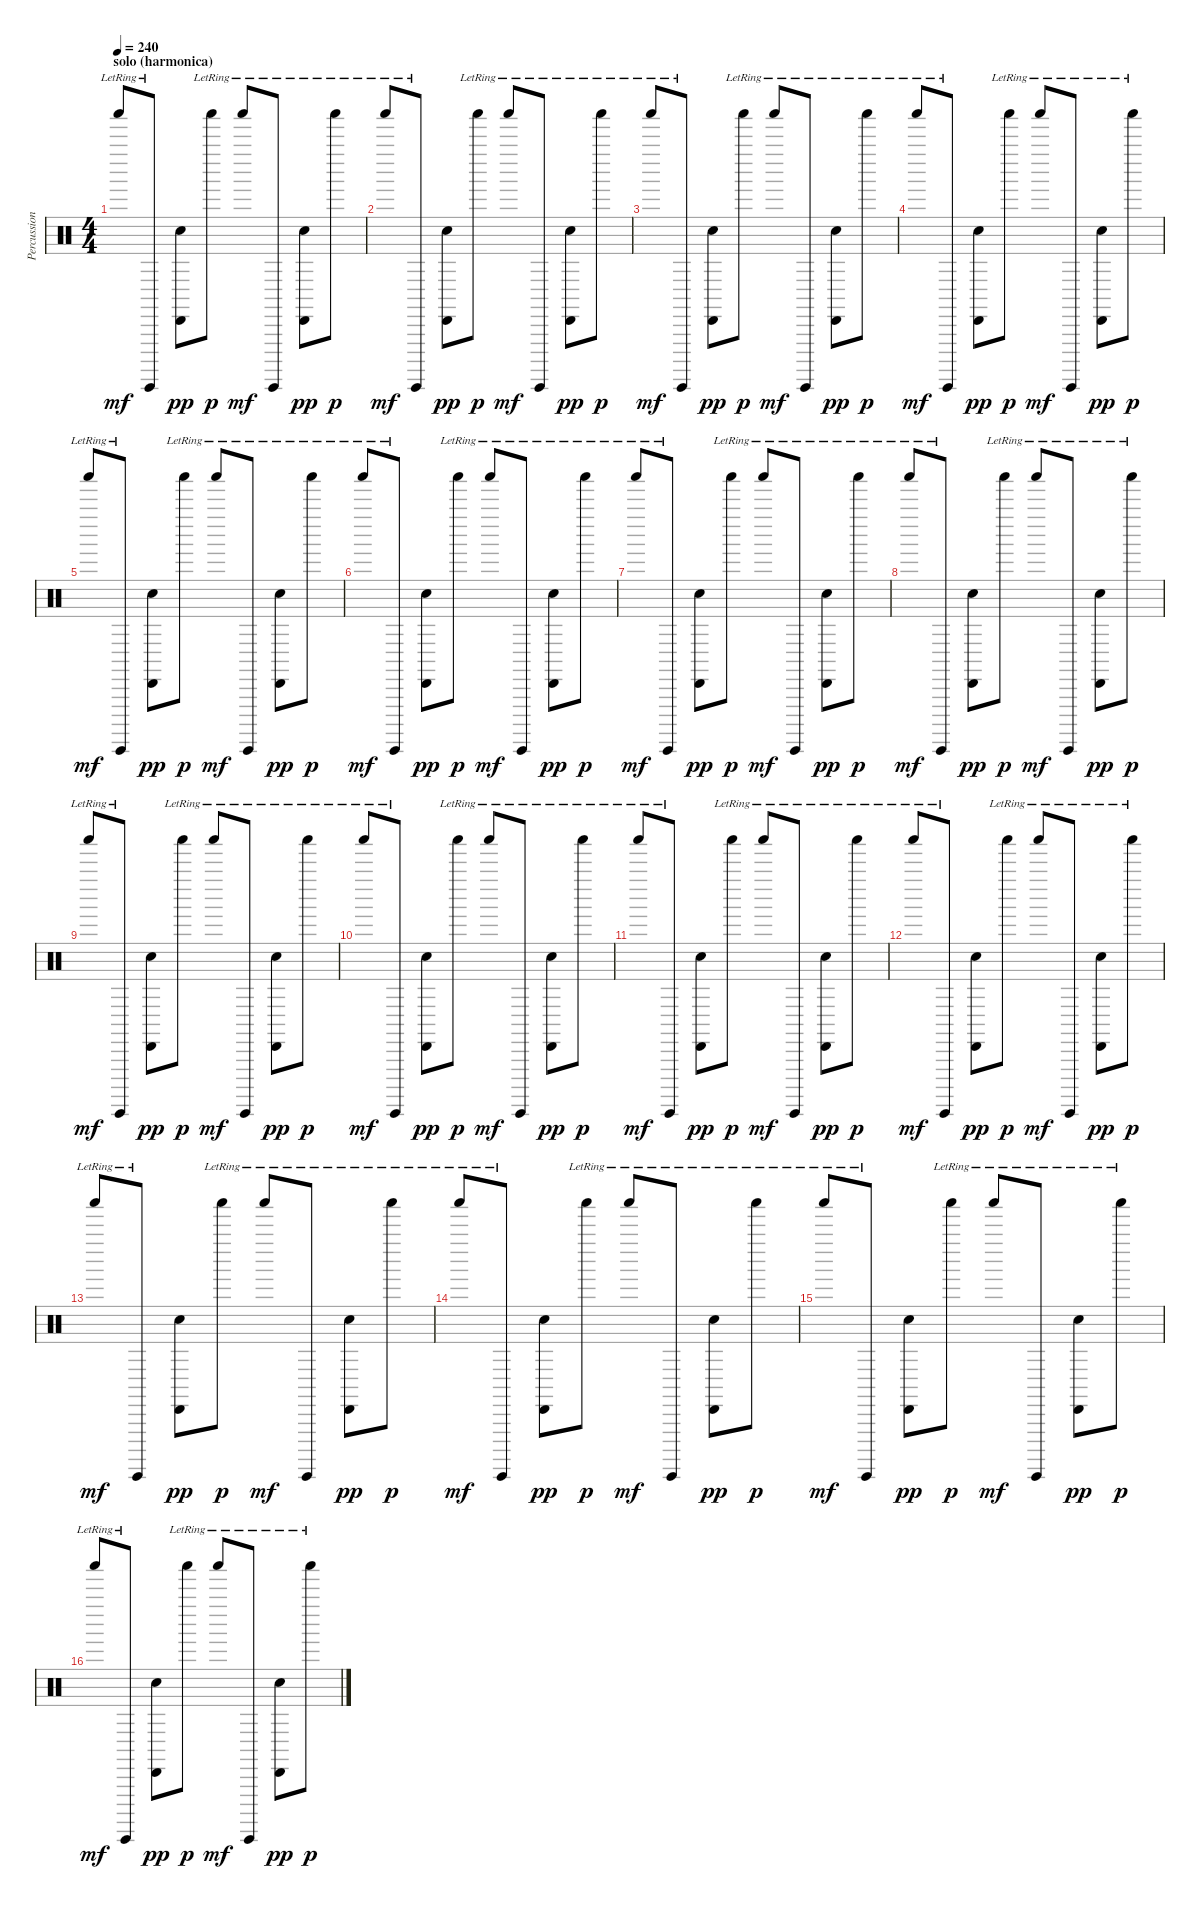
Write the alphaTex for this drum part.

\track ("Percussions" "Percussion") {instrument percussion}
\staff {score}
\articulation defaults
\ts (4 4)
\section ("" "solo (harmonica)")
\tempo 240
\clef neutral
\ks c "Shaker (hit)"{lr}.8{dy mf} "Guiro (hit)"{lr}.8
("Cabasa (hit)" "Snare (hit) 2").8{dy pp} "Shaker (hit)"{lr}.8{dy p} "Shaker (hit)"{lr}.8{dy mf} "Guiro (hit)"{lr}.8 ("Cabasa (hit)"{lr} "Snare (hit) 2").8{dy pp} "Shaker (hit)"{lr}.8{dy p} |
"Shaker (hit)"{lr}.8{dy mf} "Guiro (hit)"{lr}.8 ("Cabasa (hit)" "Snare (hit) 2").8{dy pp} "Shaker (hit)"{lr}.8{dy p} "Shaker (hit)"{lr}.8{dy mf} "Guiro (hit)"{lr}.8 ("Cabasa (hit)"{lr} "Snare (hit) 2").8{dy pp} "Shaker (hit)"{lr}.8{dy p} |
"Shaker (hit)"{lr}.8{dy mf} "Guiro (hit)"{lr}.8 ("Cabasa (hit)" "Snare (hit) 2").8{dy pp} "Shaker (hit)"{lr}.8{dy p} "Shaker (hit)"{lr}.8{dy mf} "Guiro (hit)"{lr}.8 ("Cabasa (hit)"{lr} "Snare (hit) 2").8{dy pp} "Shaker (hit)"{lr}.8{dy p} |
"Shaker (hit)"{lr}.8{dy mf} "Guiro (hit)"{lr}.8 ("Cabasa (hit)" "Snare (hit) 2").8{dy pp} "Shaker (hit)"{lr}.8{dy p} "Shaker (hit)"{lr}.8{dy mf} "Guiro (hit)"{lr}.8 ("Cabasa (hit)"{lr} "Snare (hit) 2").8{dy pp} "Shaker (hit)"{lr}.8{dy p} |
"Shaker (hit)"{lr}.8{dy mf} "Guiro (hit)"{lr}.8 ("Cabasa (hit)" "Snare (hit) 2").8{dy pp} "Shaker (hit)"{lr}.8{dy p} "Shaker (hit)"{lr}.8{dy mf} "Guiro (hit)"{lr}.8 ("Cabasa (hit)"{lr} "Snare (hit) 2").8{dy pp} "Shaker (hit)"{lr}.8{dy p} |
"Shaker (hit)"{lr}.8{dy mf} "Guiro (hit)"{lr}.8 ("Cabasa (hit)" "Snare (hit) 2").8{dy pp} "Shaker (hit)"{lr}.8{dy p} "Shaker (hit)"{lr}.8{dy mf} "Guiro (hit)"{lr}.8 ("Cabasa (hit)"{lr} "Snare (hit) 2").8{dy pp} "Shaker (hit)"{lr}.8{dy p} |
"Shaker (hit)"{lr}.8{dy mf} "Guiro (hit)"{lr}.8 ("Cabasa (hit)" "Snare (hit) 2").8{dy pp} "Shaker (hit)"{lr}.8{dy p} "Shaker (hit)"{lr}.8{dy mf} "Guiro (hit)"{lr}.8 ("Cabasa (hit)"{lr} "Snare (hit) 2").8{dy pp} "Shaker (hit)"{lr}.8{dy p} |
"Shaker (hit)"{lr}.8{dy mf} "Guiro (hit)"{lr}.8 ("Cabasa (hit)" "Snare (hit) 2").8{dy pp} "Shaker (hit)"{lr}.8{dy p} "Shaker (hit)"{lr}.8{dy mf} "Guiro (hit)"{lr}.8 ("Cabasa (hit)"{lr} "Snare (hit) 2").8{dy pp} "Shaker (hit)"{lr}.8{dy p} |
"Shaker (hit)"{lr}.8{dy mf} "Guiro (hit)"{lr}.8 ("Cabasa (hit)" "Snare (hit) 2").8{dy pp} "Shaker (hit)"{lr}.8{dy p} "Shaker (hit)"{lr}.8{dy mf} "Guiro (hit)"{lr}.8 ("Cabasa (hit)"{lr} "Snare (hit) 2").8{dy pp} "Shaker (hit)"{lr}.8{dy p} |
"Shaker (hit)"{lr}.8{dy mf} "Guiro (hit)"{lr}.8 ("Cabasa (hit)" "Snare (hit) 2").8{dy pp} "Shaker (hit)"{lr}.8{dy p} "Shaker (hit)"{lr}.8{dy mf} "Guiro (hit)"{lr}.8 ("Cabasa (hit)"{lr} "Snare (hit) 2").8{dy pp} "Shaker (hit)"{lr}.8{dy p} |
"Shaker (hit)"{lr}.8{dy mf} "Guiro (hit)"{lr}.8 ("Cabasa (hit)" "Snare (hit) 2").8{dy pp} "Shaker (hit)"{lr}.8{dy p} "Shaker (hit)"{lr}.8{dy mf} "Guiro (hit)"{lr}.8 ("Cabasa (hit)"{lr} "Snare (hit) 2").8{dy pp} "Shaker (hit)"{lr}.8{dy p} |
"Shaker (hit)"{lr}.8{dy mf} "Guiro (hit)"{lr}.8 ("Cabasa (hit)" "Snare (hit) 2").8{dy pp} "Shaker (hit)"{lr}.8{dy p} "Shaker (hit)"{lr}.8{dy mf} "Guiro (hit)"{lr}.8 ("Cabasa (hit)"{lr} "Snare (hit) 2").8{dy pp} "Shaker (hit)"{lr}.8{dy p} |
"Shaker (hit)"{lr}.8{dy mf} "Guiro (hit)"{lr}.8 ("Cabasa (hit)" "Snare (hit) 2").8{dy pp} "Shaker (hit)"{lr}.8{dy p} "Shaker (hit)"{lr}.8{dy mf} "Guiro (hit)"{lr}.8 ("Cabasa (hit)"{lr} "Snare (hit) 2").8{dy pp} "Shaker (hit)"{lr}.8{dy p} |
"Shaker (hit)"{lr}.8{dy mf} "Guiro (hit)"{lr}.8 ("Cabasa (hit)" "Snare (hit) 2").8{dy pp} "Shaker (hit)"{lr}.8{dy p} "Shaker (hit)"{lr}.8{dy mf} "Guiro (hit)"{lr}.8 ("Cabasa (hit)"{lr} "Snare (hit) 2").8{dy pp} "Shaker (hit)"{lr}.8{dy p} |
"Shaker (hit)"{lr}.8{dy mf} "Guiro (hit)"{lr}.8 ("Cabasa (hit)" "Snare (hit) 2").8{dy pp} "Shaker (hit)"{lr}.8{dy p} "Shaker (hit)"{lr}.8{dy mf} "Guiro (hit)"{lr}.8 ("Cabasa (hit)"{lr} "Snare (hit) 2").8{dy pp} "Shaker (hit)"{lr}.8{dy p} |
"Shaker (hit)"{lr}.8{dy mf} "Guiro (hit)"{lr}.8 ("Cabasa (hit)" "Snare (hit) 2").8{dy pp} "Shaker (hit)"{lr}.8{dy p} "Shaker (hit)"{lr}.8{dy mf} "Guiro (hit)"{lr}.8 ("Cabasa (hit)"{lr} "Snare (hit) 2").8{dy pp} "Shaker (hit)"{lr}.8{dy p}
